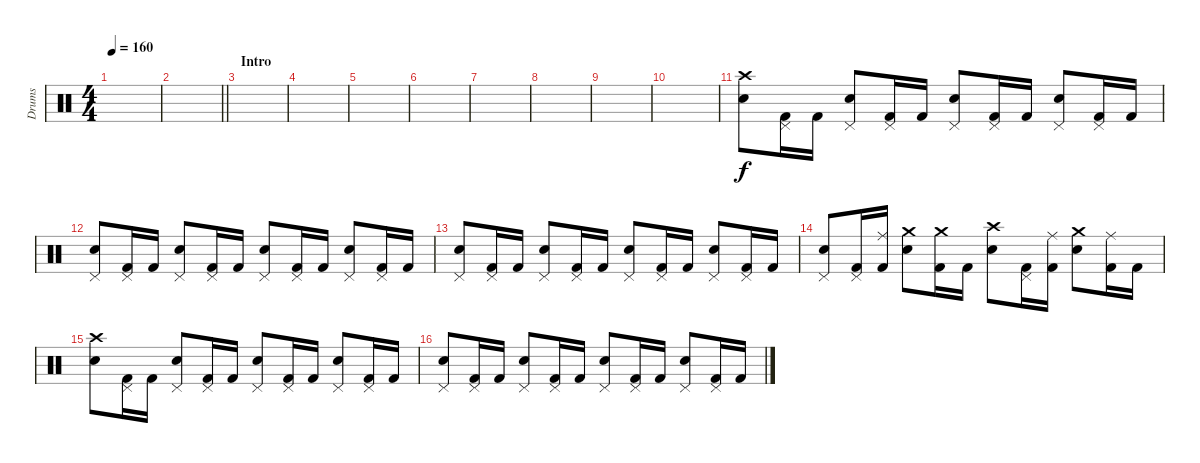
\track ("Drums" "Drums") {instrument percussion}
\staff {score}
\articulation defaults
\chord ("vmf@vmail.ru")
\ts (4 4)
\tempo 160
\clef neutral
\ks c
|
\barLineRight lightlight
|
\section ("" "Intro")
|
|
|
|
|
|
|
|
("Crash high (hit)" "Snare (hit) 2").8 ("Pedal Hi-Hat (hit)" "Kick (hit) 2").16 "Kick (hit) 2".16 ("Pedal Hi-Hat (hit)" "Snare (hit) 2").8 ("Pedal Hi-Hat (hit)" "Kick (hit) 2").16 "Kick (hit) 2".16 ("Pedal Hi-Hat (hit)" "Snare (hit) 2").8 ("Pedal Hi-Hat (hit)" "Kick (hit) 2").16 "Kick (hit) 2".16 ("Pedal Hi-Hat (hit)" "Snare (hit) 2").8 ("Pedal Hi-Hat (hit)" "Kick (hit) 2").16 "Kick (hit) 2".16 |
("Pedal Hi-Hat (hit)" "Snare (hit) 2").8 ("Pedal Hi-Hat (hit)" "Kick (hit) 2").16 "Kick (hit) 2".16 ("Pedal Hi-Hat (hit)" "Snare (hit) 2").8 ("Pedal Hi-Hat (hit)" "Kick (hit) 2").16 "Kick (hit) 2".16 ("Pedal Hi-Hat (hit)" "Snare (hit) 2").8 ("Pedal Hi-Hat (hit)" "Kick (hit) 2").16 "Kick (hit) 2".16 ("Pedal Hi-Hat (hit)" "Snare (hit) 2").8 ("Pedal Hi-Hat (hit)" "Kick (hit) 2").16 "Kick (hit) 2".16 |
("Pedal Hi-Hat (hit)" "Snare (hit) 2").8 ("Pedal Hi-Hat (hit)" "Kick (hit) 2").16 "Kick (hit) 2".16 ("Pedal Hi-Hat (hit)" "Snare (hit) 2").8 ("Pedal Hi-Hat (hit)" "Kick (hit) 2").16 "Kick (hit) 2".16 ("Pedal Hi-Hat (hit)" "Snare (hit) 2").8 ("Pedal Hi-Hat (hit)" "Kick (hit) 2").16 "Kick (hit) 2".16 ("Pedal Hi-Hat (hit)" "Snare (hit) 2").8 ("Pedal Hi-Hat (hit)" "Kick (hit) 2").16 "Kick (hit) 2".16 |
("Pedal Hi-Hat (hit)" "Snare (hit) 2").8 ("Pedal Hi-Hat (hit)" "Kick (hit) 2").16 ("Ride (middle)" "Kick (hit) 2").16 ("Crash medium (hit)" "Snare (hit) 2").8 ("Crash medium (hit)" "Kick (hit) 2").16 "Kick (hit) 2".16 ("Crash high (hit)" "Snare (hit) 2").8 ("Pedal Hi-Hat (hit)" "Kick (hit) 2").16 ("Ride (middle)" "Kick (hit) 2").16 ("Crash medium (hit)" "Snare (hit) 2").8 ("Ride (middle)" "Kick (hit) 2").16 "Kick (hit) 2".16 |
("Crash high (hit)" "Snare (hit) 2").8 ("Pedal Hi-Hat (hit)" "Kick (hit) 2").16 "Kick (hit) 2".16 ("Pedal Hi-Hat (hit)" "Snare (hit) 2").8 ("Pedal Hi-Hat (hit)" "Kick (hit) 2").16 "Kick (hit) 2".16 ("Pedal Hi-Hat (hit)" "Snare (hit) 2").8 ("Pedal Hi-Hat (hit)" "Kick (hit) 2").16 "Kick (hit) 2".16 ("Pedal Hi-Hat (hit)" "Snare (hit) 2").8 ("Pedal Hi-Hat (hit)" "Kick (hit) 2").16 "Kick (hit) 2".16 |
("Pedal Hi-Hat (hit)" "Snare (hit) 2").8 ("Pedal Hi-Hat (hit)" "Kick (hit) 2").16 "Kick (hit) 2".16 ("Pedal Hi-Hat (hit)" "Snare (hit) 2").8 ("Pedal Hi-Hat (hit)" "Kick (hit) 2").16 "Kick (hit) 2".16 ("Pedal Hi-Hat (hit)" "Snare (hit) 2").8 ("Pedal Hi-Hat (hit)" "Kick (hit) 2").16 "Kick (hit) 2".16 ("Pedal Hi-Hat (hit)" "Snare (hit) 2").8 ("Pedal Hi-Hat (hit)" "Kick (hit) 2").16 "Kick (hit) 2".16
